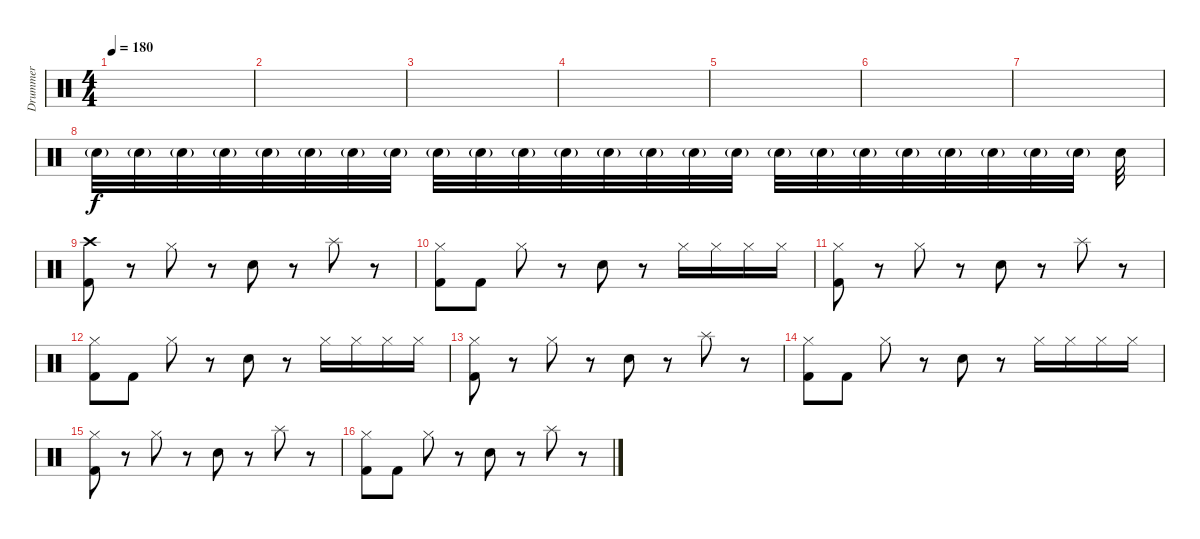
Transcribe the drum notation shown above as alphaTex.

\track ("Drummer" "Drummer") {instrument percussion}
\staff {score}
\articulation defaults
\ts (4 4)
\tempo 180
\clef neutral
\ks c
|
|
|
|
|
|
|
"Electric Snare (hit)"{g}.32 "Electric Snare (hit)"{g}.32 "Electric Snare (hit)"{g}.32 "Electric Snare (hit)"{g}.32 "Electric Snare (hit)"{g}.32 "Electric Snare (hit)"{g}.32 "Electric Snare (hit)"{g}.32 "Electric Snare (hit)"{g}.32 "Electric Snare (hit)"{g}.32 "Electric Snare (hit)"{g}.32 "Electric Snare (hit)"{g}.32 "Electric Snare (hit)"{g}.32 "Electric Snare (hit)"{g}.32 "Electric Snare (hit)"{g}.32 "Electric Snare (hit)"{g}.32 "Electric Snare (hit)"{g}.32 "Electric Snare (hit)"{g}.32 "Electric Snare (hit)"{g}.32 "Electric Snare (hit)"{g}.32 "Electric Snare (hit)"{g}.32 "Electric Snare (hit)"{g}.32 "Electric Snare (hit)"{g}.32 "Electric Snare (hit)"{g}.32 "Electric Snare (hit)"{g}.32 "Electric Snare (hit)".32{dy f} |
("Crash high (hit)" "Kick (hit) 2").8 r.8 "Hi-Hat (closed)".8 r.8 "Electric Snare (hit)".8 r.8 "Splash (hit)".8 r.8 |
("Hi-Hat (closed)" "Kick (hit) 2").8 "Kick (hit) 2".8 "Hi-Hat (closed)".8 r.8 "Electric Snare (hit)".8 r.8 "Hi-Hat (closed)".16 "Hi-Hat (closed)".16 "Hi-Hat (closed)".16 "Hi-Hat (closed)".16 |
("Hi-Hat (closed)" "Kick (hit) 2").8 r.8 "Hi-Hat (closed)".8 r.8 "Electric Snare (hit)".8 r.8 "Splash (hit)".8 r.8 |
("Hi-Hat (closed)" "Kick (hit) 2").8 "Kick (hit) 2".8 "Hi-Hat (closed)".8 r.8 "Electric Snare (hit)".8 r.8 "Hi-Hat (closed)".16 "Hi-Hat (closed)".16 "Hi-Hat (closed)".16 "Hi-Hat (closed)".16 |
("Hi-Hat (closed)" "Kick (hit) 2").8 r.8 "Hi-Hat (closed)".8 r.8 "Electric Snare (hit)".8 r.8 "Splash (hit)".8 r.8 |
("Hi-Hat (closed)" "Kick (hit) 2").8 "Kick (hit) 2".8 "Hi-Hat (closed)".8 r.8 "Electric Snare (hit)".8 r.8 "Hi-Hat (closed)".16 "Hi-Hat (closed)".16 "Hi-Hat (closed)".16 "Hi-Hat (closed)".16 |
("Hi-Hat (closed)" "Kick (hit) 2").8 r.8 "Hi-Hat (closed)".8 r.8 "Electric Snare (hit)".8 r.8 "Splash (hit)".8 r.8 |
("Hi-Hat (closed)" "Kick (hit) 2").8 "Kick (hit) 2".8 "Hi-Hat (closed)".8 r.8 "Electric Snare (hit)".8 r.8 "Splash (hit)".8 r.8
